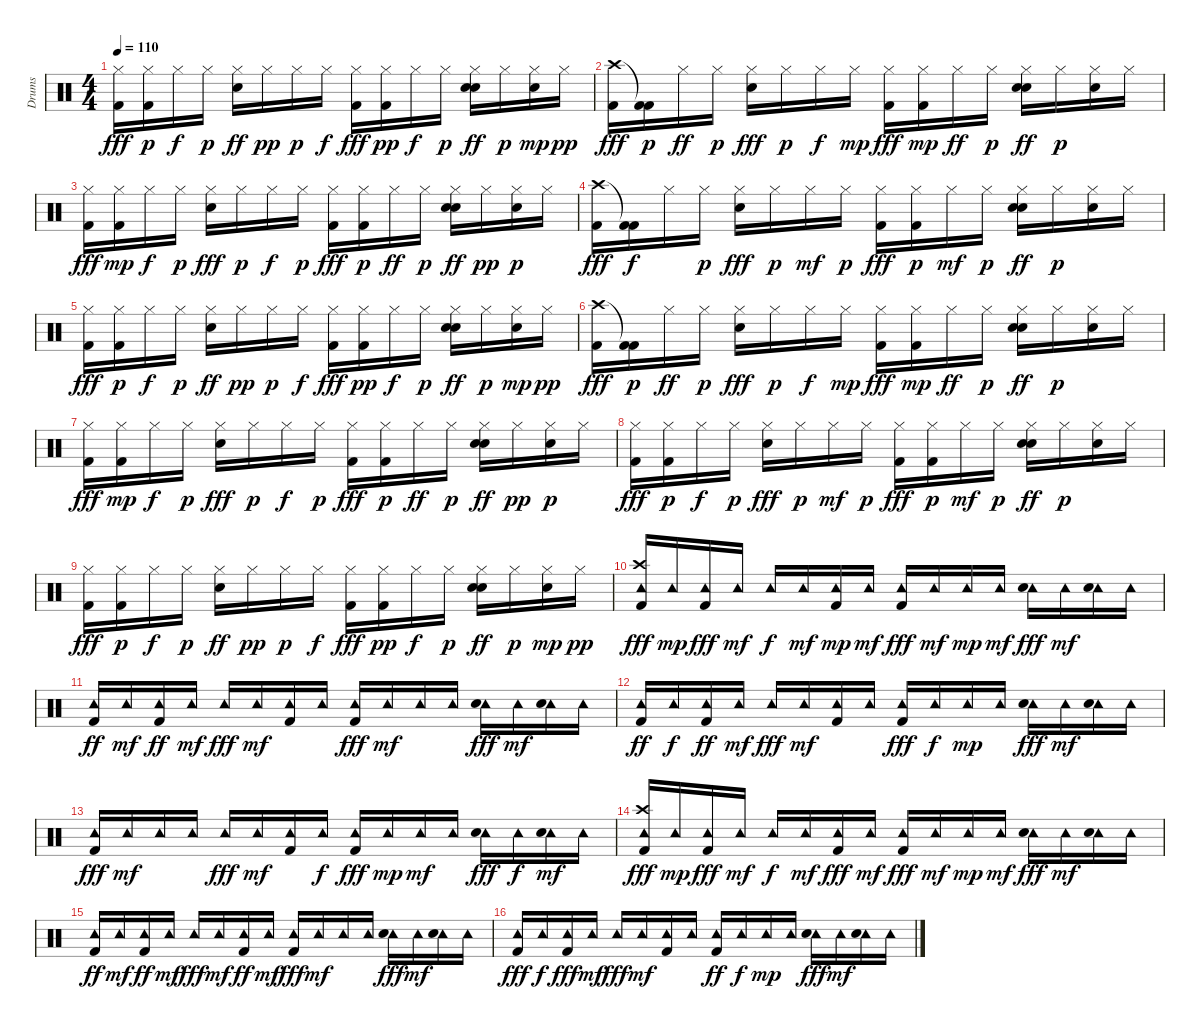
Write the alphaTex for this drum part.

\track ("Drums" "Drums") {instrument percussion}
\staff {score}
\articulation defaults
\ts (4 4)
\tempo 110
\clef neutral
\ks c
("Hi-Hat (closed)" "Kick (hit) 2").16{dy fff} ("Hi-Hat (closed)" "Kick (hit) 2").16{dy p} "Hi-Hat (closed)".16{dy f} "Hi-Hat (closed)".16{dy p} ("Hi-Hat (closed)" "Snare (hit) 2").16{dy ff} "Hi-Hat (closed)".16{dy pp} "Hi-Hat (closed)".16{dy p} "Hi-Hat (closed)".16{dy f} ("Hi-Hat (closed)" "Kick (hit) 2").16{dy fff} ("Hi-Hat (closed)" "Kick (hit) 2").16{dy pp} "Hi-Hat (closed)".16{dy f} "Hi-Hat (closed)".16{dy p} ("Hi-Hat (closed)" "Snare (hit) 2" "Hand Clap (hit)").16{dy ff} "Hi-Hat (closed)".16{dy p} ("Hi-Hat (closed)" "Hand Clap (hit)").16{dy mp} "Hi-Hat (closed)".16{dy pp} |
("Crash high (hit)" "Kick (hit) 2").16{dy fff} ("Kick (hit) 2"{t} "Kick (hit) 2").16{dy p} "Hi-Hat (closed)".16{dy ff} "Hi-Hat (closed)".16{dy p} ("Hi-Hat (closed)" "Snare (hit) 2").16{dy fff} "Hi-Hat (closed)".16{dy p} "Hi-Hat (closed)".16{dy f} "Hi-Hat (closed)".16{dy mp} ("Hi-Hat (closed)" "Kick (hit) 2").16{dy fff} ("Hi-Hat (closed)" "Kick (hit) 2").16{dy mp} "Hi-Hat (closed)".16{dy ff} "Hi-Hat (closed)".16{dy p} ("Hi-Hat (closed)" "Snare (hit) 2" "Hand Clap (hit)").16{dy ff} "Hi-Hat (closed)".16{dy p} ("Hi-Hat (closed)" "Hand Clap (hit)").16 "Hi-Hat (closed)".16 |
("Hi-Hat (closed)" "Kick (hit) 2").16{dy fff} ("Hi-Hat (closed)" "Kick (hit) 2").16{dy mp} "Hi-Hat (closed)".16{dy f} "Hi-Hat (closed)".16{dy p} ("Hi-Hat (closed)" "Snare (hit) 2").16{dy fff} "Hi-Hat (closed)".16{dy p} "Hi-Hat (closed)".16{dy f} "Hi-Hat (closed)".16{dy p} ("Hi-Hat (closed)" "Kick (hit) 2").16{dy fff} ("Hi-Hat (closed)" "Kick (hit) 2").16{dy p} "Hi-Hat (closed)".16{dy ff} "Hi-Hat (closed)".16{dy p} ("Hi-Hat (closed)" "Snare (hit) 2" "Hand Clap (hit)").16{dy ff} "Hi-Hat (closed)".16{dy pp} ("Hi-Hat (closed)" "Hand Clap (hit)").16{dy p} "Hi-Hat (closed)".16 |
("Crash high (hit)" "Kick (hit) 2").16{dy fff} ("Kick (hit) 2"{t} "Kick (hit) 2").16{dy f} "Hi-Hat (closed)".16 "Hi-Hat (closed)".16{dy p} ("Hi-Hat (closed)" "Snare (hit) 2").16{dy fff} "Hi-Hat (closed)".16{dy p} "Hi-Hat (closed)".16{dy mf} "Hi-Hat (closed)".16{dy p} ("Hi-Hat (closed)" "Kick (hit) 2").16{dy fff} ("Hi-Hat (closed)" "Kick (hit) 2").16{dy p} "Hi-Hat (closed)".16{dy mf} "Hi-Hat (closed)".16{dy p} ("Hi-Hat (closed)" "Snare (hit) 2" "Hand Clap (hit)").16{dy ff} "Hi-Hat (closed)".16{dy p} ("Hi-Hat (closed)" "Hand Clap (hit)").16 "Hi-Hat (closed)".16 |
("Hi-Hat (closed)" "Kick (hit) 2").16{dy fff} ("Hi-Hat (closed)" "Kick (hit) 2").16{dy p} "Hi-Hat (closed)".16{dy f} "Hi-Hat (closed)".16{dy p} ("Hi-Hat (closed)" "Snare (hit) 2").16{dy ff} "Hi-Hat (closed)".16{dy pp} "Hi-Hat (closed)".16{dy p} "Hi-Hat (closed)".16{dy f} ("Hi-Hat (closed)" "Kick (hit) 2").16{dy fff} ("Hi-Hat (closed)" "Kick (hit) 2").16{dy pp} "Hi-Hat (closed)".16{dy f} "Hi-Hat (closed)".16{dy p} ("Hi-Hat (closed)" "Snare (hit) 2" "Hand Clap (hit)").16{dy ff} "Hi-Hat (closed)".16{dy p} ("Hi-Hat (closed)" "Hand Clap (hit)").16{dy mp} "Hi-Hat (closed)".16{dy pp} |
("Crash high (hit)" "Kick (hit) 2").16{dy fff} ("Kick (hit) 2"{t} "Kick (hit) 2").16{dy p} "Hi-Hat (closed)".16{dy ff} "Hi-Hat (closed)".16{dy p} ("Hi-Hat (closed)" "Snare (hit) 2").16{dy fff} "Hi-Hat (closed)".16{dy p} "Hi-Hat (closed)".16{dy f} "Hi-Hat (closed)".16{dy mp} ("Hi-Hat (closed)" "Kick (hit) 2").16{dy fff} ("Hi-Hat (closed)" "Kick (hit) 2").16{dy mp} "Hi-Hat (closed)".16{dy ff} "Hi-Hat (closed)".16{dy p} ("Hi-Hat (closed)" "Snare (hit) 2" "Hand Clap (hit)").16{dy ff} "Hi-Hat (closed)".16{dy p} ("Hi-Hat (closed)" "Hand Clap (hit)").16 "Hi-Hat (closed)".16 |
("Hi-Hat (closed)" "Kick (hit) 2").16{dy fff} ("Hi-Hat (closed)" "Kick (hit) 2").16{dy mp} "Hi-Hat (closed)".16{dy f} "Hi-Hat (closed)".16{dy p} ("Hi-Hat (closed)" "Snare (hit) 2").16{dy fff} "Hi-Hat (closed)".16{dy p} "Hi-Hat (closed)".16{dy f} "Hi-Hat (closed)".16{dy p} ("Hi-Hat (closed)" "Kick (hit) 2").16{dy fff} ("Hi-Hat (closed)" "Kick (hit) 2").16{dy p} "Hi-Hat (closed)".16{dy ff} "Hi-Hat (closed)".16{dy p} ("Hi-Hat (closed)" "Snare (hit) 2" "Hand Clap (hit)").16{dy ff} "Hi-Hat (closed)".16{dy pp} ("Hi-Hat (closed)" "Hand Clap (hit)").16{dy p} "Hi-Hat (closed)".16 |
("Hi-Hat (closed)" "Kick (hit) 2").16{dy fff} ("Hi-Hat (closed)" "Kick (hit) 2").16{dy p} "Hi-Hat (closed)".16{dy f} "Hi-Hat (closed)".16{dy p} ("Hi-Hat (closed)" "Snare (hit) 2").16{dy fff} "Hi-Hat (closed)".16{dy p} "Hi-Hat (closed)".16{dy mf} "Hi-Hat (closed)".16{dy p} ("Hi-Hat (closed)" "Kick (hit) 2").16{dy fff} ("Hi-Hat (closed)" "Kick (hit) 2").16{dy p} "Hi-Hat (closed)".16{dy mf} "Hi-Hat (closed)".16{dy p} ("Hi-Hat (closed)" "Snare (hit) 2" "Hand Clap (hit)").16{dy ff} "Hi-Hat (closed)".16{dy p} ("Hi-Hat (closed)" "Hand Clap (hit)").16 "Hi-Hat (closed)".16 |
("Hi-Hat (closed)" "Kick (hit) 2").16{dy fff} ("Hi-Hat (closed)" "Kick (hit) 2").16{dy p} "Hi-Hat (closed)".16{dy f} "Hi-Hat (closed)".16{dy p} ("Hi-Hat (closed)" "Snare (hit) 2").16{dy ff} "Hi-Hat (closed)".16{dy pp} "Hi-Hat (closed)".16{dy p} "Hi-Hat (closed)".16{dy f} ("Hi-Hat (closed)" "Kick (hit) 2").16{dy fff} ("Hi-Hat (closed)" "Kick (hit) 2").16{dy pp} "Hi-Hat (closed)".16{dy f} "Hi-Hat (closed)".16{dy p} ("Hi-Hat (closed)" "Snare (hit) 2" "Hand Clap (hit)").16{dy ff} "Hi-Hat (closed)".16{dy p} ("Hi-Hat (closed)" "Hand Clap (hit)").16{dy mp} "Hi-Hat (closed)".16{dy pp} |
("Crash high (hit)" "Tambourine (hit)" "Kick (hit) 2").16{dy fff} "Tambourine (hit)".16{dy mp} ("Tambourine (hit)" "Kick (hit) 2").16{dy fff} "Tambourine (hit)".16{dy mf} "Tambourine (hit)".16{dy f} "Tambourine (hit)".16{dy mf} ("Tambourine (hit)" "Kick (hit) 2").16{dy mp} "Tambourine (hit)".16{dy mf} ("Tambourine (hit)" "Kick (hit) 2").16{dy fff} "Tambourine (hit)".16{dy mf} "Tambourine (hit)".16{dy mp} "Tambourine (hit)".16{dy mf} ("Tambourine (hit)" "Hand Clap (hit)").16{dy fff} "Tambourine (hit)".16{dy mf} ("Tambourine (hit)" "Hand Clap (hit)").16 "Tambourine (hit)".16 |
("Tambourine (hit)" "Kick (hit) 2").16{dy ff} "Tambourine (hit)".16{dy mf} ("Tambourine (hit)" "Kick (hit) 2").16{dy ff} "Tambourine (hit)".16{dy mf} "Tambourine (hit)".16{dy fff} "Tambourine (hit)".16{dy mf} ("Tambourine (hit)" "Kick (hit) 2").16 "Tambourine (hit)".16 ("Tambourine (hit)" "Kick (hit) 2").16{dy fff} "Tambourine (hit)".16{dy mf} "Tambourine (hit)".16 "Tambourine (hit)".16 ("Tambourine (hit)" "Hand Clap (hit)").16{dy fff} "Tambourine (hit)".16{dy mf} ("Tambourine (hit)" "Hand Clap (hit)").16 "Tambourine (hit)".16 |
("Tambourine (hit)" "Kick (hit) 2").16{dy ff} "Tambourine (hit)".16{dy f} ("Tambourine (hit)" "Kick (hit) 2").16{dy ff} "Tambourine (hit)".16{dy mf} "Tambourine (hit)".16{dy fff} "Tambourine (hit)".16{dy mf} ("Tambourine (hit)" "Kick (hit) 2").16 "Tambourine (hit)".16 ("Tambourine (hit)" "Kick (hit) 2").16{dy fff} "Tambourine (hit)".16{dy f} "Tambourine (hit)".16{dy mp} "Tambourine (hit)".16 ("Tambourine (hit)" "Hand Clap (hit)").16{dy fff} "Tambourine (hit)".16{dy mf} ("Tambourine (hit)" "Hand Clap (hit)").16 "Tambourine (hit)".16 |
("Tambourine (hit)" "Kick (hit) 2").16{dy fff} "Tambourine (hit)".16{dy mf} "Tambourine (hit)".16 "Tambourine (hit)".16 "Tambourine (hit)".16{dy fff} "Tambourine (hit)".16{dy mf} ("Tambourine (hit)" "Kick (hit) 2").16 "Tambourine (hit)".16{dy f} ("Tambourine (hit)" "Kick (hit) 2").16{dy fff} "Tambourine (hit)".16{dy mp} "Tambourine (hit)".16{dy mf} "Tambourine (hit)".16 ("Tambourine (hit)" "Hand Clap (hit)").16{dy fff} "Tambourine (hit)".16{dy f} ("Tambourine (hit)" "Hand Clap (hit)").16{dy mf} "Tambourine (hit)".16 |
("Crash high (hit)" "Tambourine (hit)" "Kick (hit) 2").16{dy fff} "Tambourine (hit)".16{dy mp} ("Tambourine (hit)" "Kick (hit) 2").16{dy fff} "Tambourine (hit)".16{dy mf} "Tambourine (hit)".16{dy f} "Tambourine (hit)".16{dy mf} ("Tambourine (hit)" "Kick (hit) 2").16{dy fff} "Tambourine (hit)".16{dy mf} ("Tambourine (hit)" "Kick (hit) 2").16{dy fff} "Tambourine (hit)".16{dy mf} "Tambourine (hit)".16{dy mp} "Tambourine (hit)".16{dy mf} ("Tambourine (hit)" "Hand Clap (hit)").16{dy fff} "Tambourine (hit)".16{dy mf} ("Tambourine (hit)" "Hand Clap (hit)").16 "Tambourine (hit)".16 |
("Tambourine (hit)" "Kick (hit) 2").16{dy ff} "Tambourine (hit)".16{dy mf} ("Tambourine (hit)" "Kick (hit) 2").16{dy ff} "Tambourine (hit)".16{dy mf} "Tambourine (hit)".16{dy fff} "Tambourine (hit)".16{dy mf} ("Tambourine (hit)" "Kick (hit) 2").16{dy ff} "Tambourine (hit)".16{dy mf} ("Tambourine (hit)" "Kick (hit) 2").16{dy fff} "Tambourine (hit)".16{dy mf} "Tambourine (hit)".16 "Tambourine (hit)".16 ("Tambourine (hit)" "Hand Clap (hit)").16{dy fff} "Tambourine (hit)".16{dy mf} ("Tambourine (hit)" "Hand Clap (hit)").16 "Tambourine (hit)".16 |
("Tambourine (hit)" "Kick (hit) 2").16{dy fff} "Tambourine (hit)".16{dy f} ("Tambourine (hit)" "Kick (hit) 2").16{dy fff} "Tambourine (hit)".16{dy mf} "Tambourine (hit)".16{dy fff} "Tambourine (hit)".16{dy mf} ("Tambourine (hit)" "Kick (hit) 2").16 "Tambourine (hit)".16 ("Tambourine (hit)" "Kick (hit) 2").16{dy ff} "Tambourine (hit)".16{dy f} "Tambourine (hit)".16{dy mp} "Tambourine (hit)".16 ("Tambourine (hit)" "Hand Clap (hit)").16{dy fff} "Tambourine (hit)".16{dy mf} ("Tambourine (hit)" "Hand Clap (hit)").16 "Tambourine (hit)".16
